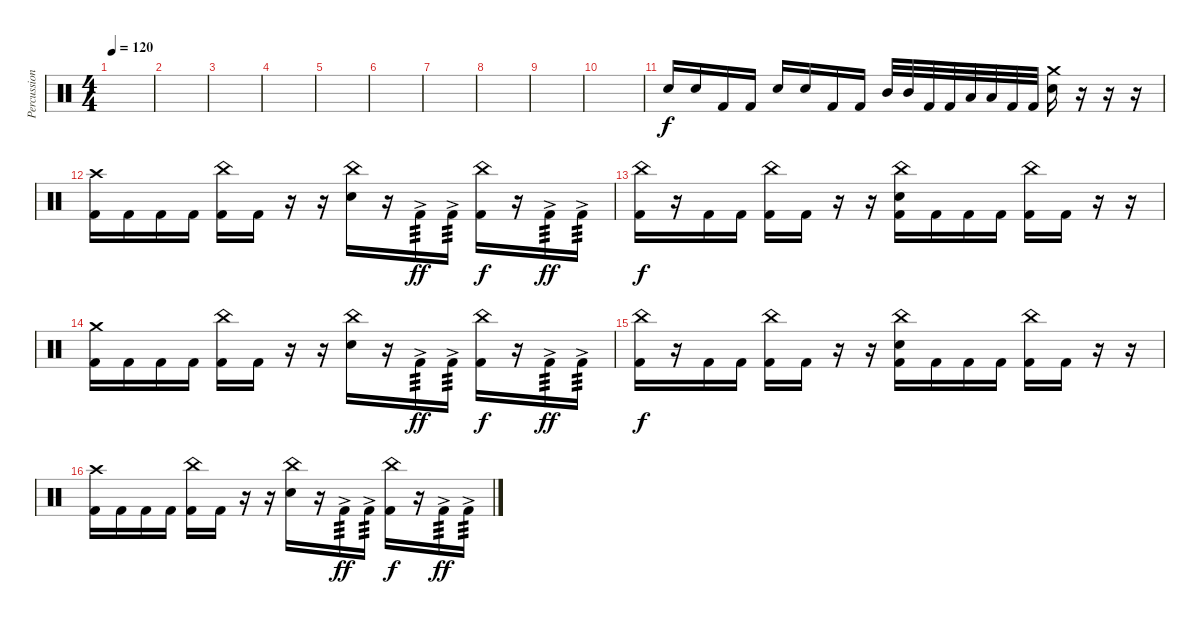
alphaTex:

\track ("Percussion" "Percussion") {instrument percussion}
\staff {score}
\articulation defaults
\ts (4 4)
\tempo 120
\clef neutral
\ks c
|
|
|
|
|
|
|
|
|
|
"Electric Snare (hit)".16 "Electric Snare (hit)".16 "Kick (hit) 2".16 "Kick (hit) 2".16 "Electric Snare (hit)".16 "Electric Snare (hit)".16 "Kick (hit) 2".16 "Kick (hit) 2".16 "Mid Tom (hit)".32 "Mid Tom (hit)".32 "Kick (hit) 2".32 "Kick (hit) 2".32 "Low Tom (hit)".32 "Low Tom (hit)".32 "Kick (hit) 2".32 "Kick (hit) 2".32 ("Crash medium (hit)" "Electric Snare (hit)").16 r.16 r.16 r.16 |
("Crash high (hit)" "Kick (hit) 2").16 "Kick (hit) 2".16 "Kick (hit) 2".16 "Kick (hit) 2".16 ("China (hit)" "Kick (hit) 2").16 "Kick (hit) 2".16 r.16 r.16 ("China (hit)" "Electric Snare (hit)").16 r.16 "Kick (hit) 2"{ac}.16{tp 3 dy ff} "Kick (hit) 2"{ac}.16{tp 3} ("China (hit)" "Kick (hit) 2").16{dy f} r.16 "Kick (hit) 2"{ac}.16{tp 3 dy ff} "Kick (hit) 2"{ac}.16{tp 3} |
("China (hit)" "Kick (hit) 2").16{dy f} r.16 "Kick (hit) 2".16 "Kick (hit) 2".16 ("China (hit)" "Kick (hit) 2").16 "Kick (hit) 2".16 r.16 r.16 ("China (hit)" "Electric Snare (hit)" "Kick (hit) 2").16 "Kick (hit) 2".16 "Kick (hit) 2".16 "Kick (hit) 2".16 ("China (hit)" "Kick (hit) 2").16 "Kick (hit) 2".16 r.16 r.16 |
("Crash medium (hit)" "Kick (hit) 2").16 "Kick (hit) 2".16 "Kick (hit) 2".16 "Kick (hit) 2".16 ("China (hit)" "Kick (hit) 2").16 "Kick (hit) 2".16 r.16 r.16 ("China (hit)" "Electric Snare (hit)").16 r.16 "Kick (hit) 2"{ac}.16{tp 3 dy ff} "Kick (hit) 2"{ac}.16{tp 3} ("China (hit)" "Kick (hit) 2").16{dy f} r.16 "Kick (hit) 2"{ac}.16{tp 3 dy ff} "Kick (hit) 2"{ac}.16{tp 3} |
("China (hit)" "Kick (hit) 2").16{dy f} r.16 "Kick (hit) 2".16 "Kick (hit) 2".16 ("China (hit)" "Kick (hit) 2").16 "Kick (hit) 2".16 r.16 r.16 ("China (hit)" "Electric Snare (hit)" "Kick (hit) 2").16 "Kick (hit) 2".16 "Kick (hit) 2".16 "Kick (hit) 2".16 ("China (hit)" "Kick (hit) 2").16 "Kick (hit) 2".16 r.16 r.16 |
("Crash high (hit)" "Kick (hit) 2").16 "Kick (hit) 2".16 "Kick (hit) 2".16 "Kick (hit) 2".16 ("China (hit)" "Kick (hit) 2").16 "Kick (hit) 2".16 r.16 r.16 ("China (hit)" "Electric Snare (hit)").16 r.16 "Kick (hit) 2"{ac}.16{tp 3 dy ff} "Kick (hit) 2"{ac}.16{tp 3} ("China (hit)" "Kick (hit) 2").16{dy f} r.16 "Kick (hit) 2"{ac}.16{tp 3 dy ff} "Kick (hit) 2"{ac}.16{tp 3}
